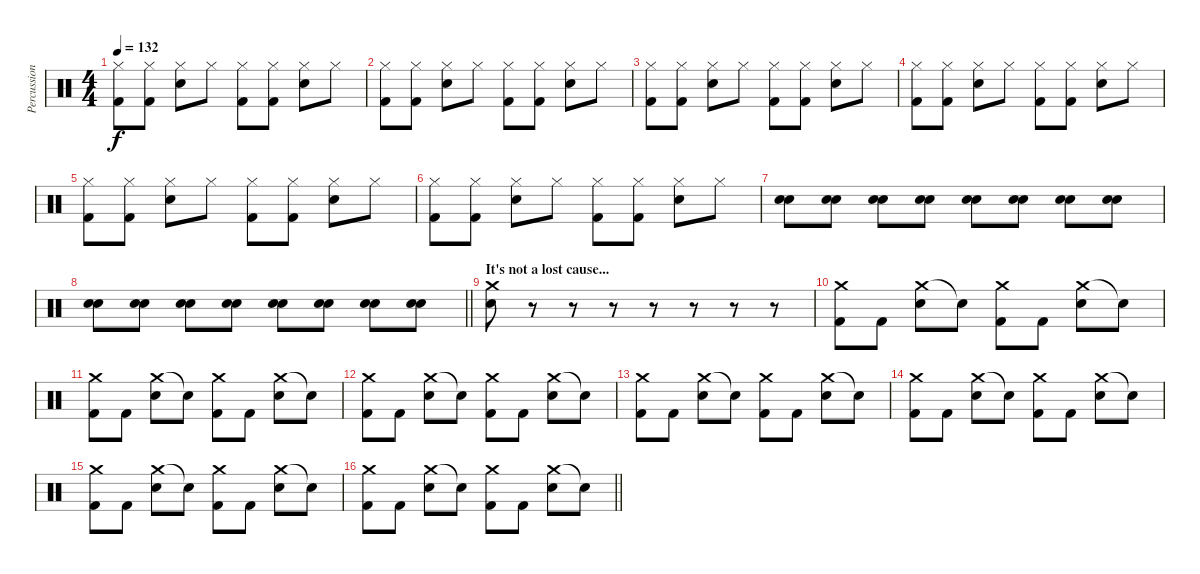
\track ("Percussioni" "Percussion") {instrument percussion}
\staff {score}
\articulation defaults
\ts (4 4)
\tempo 132
\clef neutral
\ks c
("Hi-Hat (closed)" "Kick (hit) 2").8{dy f} ("Hi-Hat (closed)" "Kick (hit) 2").8 ("Hi-Hat (closed)" "Snare (hit) 2").8 "Hi-Hat (closed)".8 ("Hi-Hat (closed)" "Kick (hit) 2").8 ("Hi-Hat (closed)" "Kick (hit) 2").8 ("Hi-Hat (closed)" "Snare (hit) 2").8 "Hi-Hat (closed)".8 |
("Hi-Hat (closed)" "Kick (hit) 2").8 ("Hi-Hat (closed)" "Kick (hit) 2").8 ("Hi-Hat (closed)" "Snare (hit) 2").8 "Hi-Hat (closed)".8 ("Hi-Hat (closed)" "Kick (hit) 2").8 ("Hi-Hat (closed)" "Kick (hit) 2").8 ("Hi-Hat (closed)" "Snare (hit) 2").8 "Hi-Hat (closed)".8 |
("Hi-Hat (closed)" "Kick (hit) 2").8 ("Hi-Hat (closed)" "Kick (hit) 2").8 ("Hi-Hat (closed)" "Snare (hit) 2").8 "Hi-Hat (closed)".8 ("Hi-Hat (closed)" "Kick (hit) 2").8 ("Hi-Hat (closed)" "Kick (hit) 2").8 ("Hi-Hat (closed)" "Snare (hit) 2").8 "Hi-Hat (closed)".8 |
("Hi-Hat (closed)" "Kick (hit) 2").8 ("Hi-Hat (closed)" "Kick (hit) 2").8 ("Hi-Hat (closed)" "Snare (hit) 2").8 "Hi-Hat (closed)".8 ("Hi-Hat (closed)" "Kick (hit) 2").8 ("Hi-Hat (closed)" "Kick (hit) 2").8 ("Hi-Hat (closed)" "Snare (hit) 2").8 "Hi-Hat (closed)".8 |
("Hi-Hat (closed)" "Kick (hit) 2").8 ("Hi-Hat (closed)" "Kick (hit) 2").8 ("Hi-Hat (closed)" "Snare (hit) 2").8 "Hi-Hat (closed)".8 ("Hi-Hat (closed)" "Kick (hit) 2").8 ("Hi-Hat (closed)" "Kick (hit) 2").8 ("Hi-Hat (closed)" "Snare (hit) 2").8 "Hi-Hat (closed)".8 |
("Hi-Hat (closed)" "Kick (hit) 2").8 ("Hi-Hat (closed)" "Kick (hit) 2").8 ("Hi-Hat (closed)" "Snare (hit) 2").8 "Hi-Hat (closed)".8 ("Hi-Hat (closed)" "Kick (hit) 2").8 ("Hi-Hat (closed)" "Kick (hit) 2").8 ("Hi-Hat (closed)" "Snare (hit) 2").8 "Hi-Hat (closed)".8 |
("Snare (hit) 2" "Snare (hit) 2").8{volume 16} ("Snare (hit) 2" "Snare (hit) 2").8 ("Snare (hit) 2" "Snare (hit) 2").8 ("Snare (hit) 2" "Snare (hit) 2").8 ("Snare (hit) 2" "Snare (hit) 2").8 ("Snare (hit) 2" "Snare (hit) 2").8 ("Snare (hit) 2" "Snare (hit) 2").8 ("Snare (hit) 2" "Snare (hit) 2").8 |
\barLineRight lightlight
("Snare (hit) 2" "Snare (hit) 2").8 ("Snare (hit) 2" "Snare (hit) 2").8 ("Snare (hit) 2" "Snare (hit) 2").8 ("Snare (hit) 2" "Snare (hit) 2").8 ("Snare (hit) 2" "Snare (hit) 2").8 ("Snare (hit) 2" "Snare (hit) 2").8 ("Snare (hit) 2" "Snare (hit) 2").8 ("Snare (hit) 2" "Snare (hit) 2").8 |
\section ("" "It's not a lost cause...")
("Crash medium (hit)" "Snare (hit) 2").8 r.8 r.8 r.8 r.8 r.8 r.8 r.8 |
("Crash medium (hit)" "Kick (hit) 2").8{volume 16} "Kick (hit) 2".8 ("Crash medium (hit)" "Snare (hit) 2").8 "Snare (hit)"{t}.8 ("Crash medium (hit)" "Kick (hit) 2").8 "Kick (hit) 2".8 ("Crash medium (hit)" "Snare (hit) 2").8 "Snare (hit)"{t}.8 |
("Crash medium (hit)" "Kick (hit) 2").8 "Kick (hit) 2".8 ("Crash medium (hit)" "Snare (hit) 2").8 "Snare (hit)"{t}.8 ("Crash medium (hit)" "Kick (hit) 2").8 "Kick (hit) 2".8 ("Crash medium (hit)" "Snare (hit) 2").8 "Snare (hit)"{t}.8 |
("Crash medium (hit)" "Kick (hit) 2").8 "Kick (hit) 2".8 ("Crash medium (hit)" "Snare (hit) 2").8 "Snare (hit)"{t}.8 ("Crash medium (hit)" "Kick (hit) 2").8 "Kick (hit) 2".8 ("Crash medium (hit)" "Snare (hit) 2").8 "Snare (hit)"{t}.8 |
("Crash medium (hit)" "Kick (hit) 2").8 "Kick (hit) 2".8 ("Crash medium (hit)" "Snare (hit) 2").8 "Snare (hit)"{t}.8 ("Crash medium (hit)" "Kick (hit) 2").8 "Kick (hit) 2".8 ("Crash medium (hit)" "Snare (hit) 2").8 "Snare (hit)"{t}.8 |
("Crash medium (hit)" "Kick (hit) 2").8 "Kick (hit) 2".8 ("Crash medium (hit)" "Snare (hit) 2").8 "Snare (hit)"{t}.8 ("Crash medium (hit)" "Kick (hit) 2").8 "Kick (hit) 2".8 ("Crash medium (hit)" "Snare (hit) 2").8 "Snare (hit)"{t}.8 |
("Crash medium (hit)" "Kick (hit) 2").8 "Kick (hit) 2".8 ("Crash medium (hit)" "Snare (hit) 2").8 "Snare (hit)"{t}.8 ("Crash medium (hit)" "Kick (hit) 2").8 "Kick (hit) 2".8 ("Crash medium (hit)" "Snare (hit) 2").8 "Snare (hit)"{t}.8 |
\barLineRight lightlight
("Crash medium (hit)" "Kick (hit) 2").8 "Kick (hit) 2".8 ("Crash medium (hit)" "Snare (hit) 2").8 "Snare (hit)"{t}.8 ("Crash medium (hit)" "Kick (hit) 2").8 "Kick (hit) 2".8 ("Crash medium (hit)" "Snare (hit) 2").8 "Snare (hit)"{t}.8
